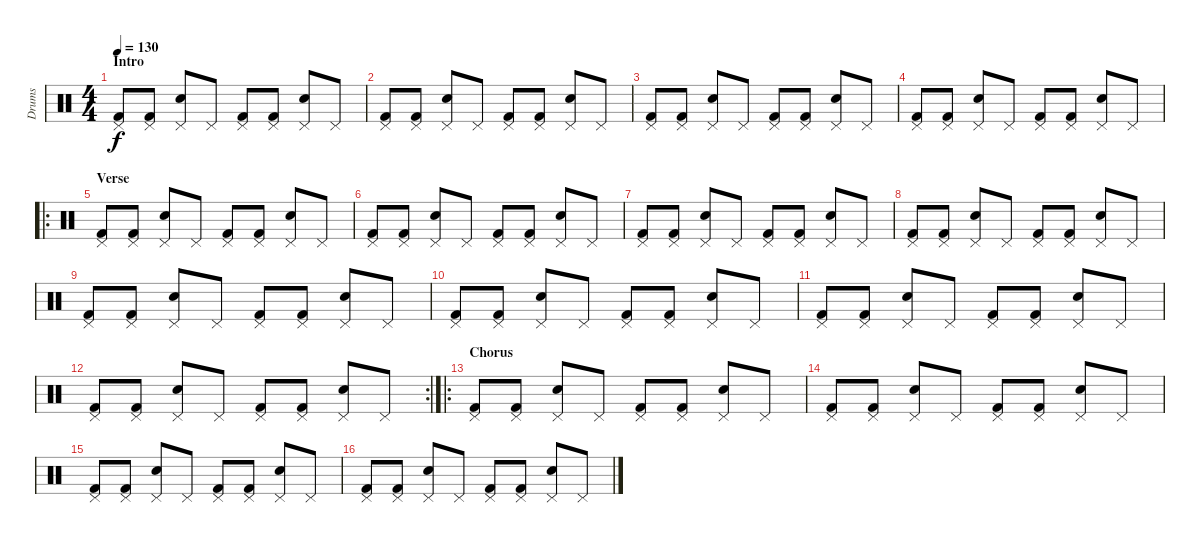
\track ("Drums" "Drums") {instrument percussion}
\staff {score}
\articulation defaults
\ts (4 4)
\section ("" "Intro")
\tempo 130
\clef neutral
\ks c
("Pedal Hi-Hat (hit)" "Kick (hit) 2").8{dy f} ("Pedal Hi-Hat (hit)" "Kick (hit) 2").8 ("Pedal Hi-Hat (hit)" "Snare (hit) 2").8 "Pedal Hi-Hat (hit)".8 ("Pedal Hi-Hat (hit)" "Kick (hit) 2").8 ("Pedal Hi-Hat (hit)" "Kick (hit) 2").8 ("Pedal Hi-Hat (hit)" "Snare (hit) 2").8 "Pedal Hi-Hat (hit)".8 |
("Pedal Hi-Hat (hit)" "Kick (hit) 2").8 ("Pedal Hi-Hat (hit)" "Kick (hit) 2").8 ("Pedal Hi-Hat (hit)" "Snare (hit) 2").8 "Pedal Hi-Hat (hit)".8 ("Pedal Hi-Hat (hit)" "Kick (hit) 2").8 ("Pedal Hi-Hat (hit)" "Kick (hit) 2").8 ("Pedal Hi-Hat (hit)" "Snare (hit) 2").8 "Pedal Hi-Hat (hit)".8 |
("Pedal Hi-Hat (hit)" "Kick (hit) 2").8 ("Pedal Hi-Hat (hit)" "Kick (hit) 2").8 ("Pedal Hi-Hat (hit)" "Snare (hit) 2").8 "Pedal Hi-Hat (hit)".8 ("Pedal Hi-Hat (hit)" "Kick (hit) 2").8 ("Pedal Hi-Hat (hit)" "Kick (hit) 2").8 ("Pedal Hi-Hat (hit)" "Snare (hit) 2").8 "Pedal Hi-Hat (hit)".8 |
("Pedal Hi-Hat (hit)" "Kick (hit) 2").8 ("Pedal Hi-Hat (hit)" "Kick (hit) 2").8 ("Pedal Hi-Hat (hit)" "Snare (hit) 2").8 "Pedal Hi-Hat (hit)".8 ("Pedal Hi-Hat (hit)" "Kick (hit) 2").8 ("Pedal Hi-Hat (hit)" "Kick (hit) 2").8 ("Pedal Hi-Hat (hit)" "Snare (hit) 2").8 "Pedal Hi-Hat (hit)".8 |
\ro
\section ("" "Verse")
("Pedal Hi-Hat (hit)" "Kick (hit) 2").8 ("Pedal Hi-Hat (hit)" "Kick (hit) 2").8 ("Pedal Hi-Hat (hit)" "Snare (hit) 2").8 "Pedal Hi-Hat (hit)".8 ("Pedal Hi-Hat (hit)" "Kick (hit) 2").8 ("Pedal Hi-Hat (hit)" "Kick (hit) 2").8 ("Pedal Hi-Hat (hit)" "Snare (hit) 2").8 "Pedal Hi-Hat (hit)".8 |
("Pedal Hi-Hat (hit)" "Kick (hit) 2").8 ("Pedal Hi-Hat (hit)" "Kick (hit) 2").8 ("Pedal Hi-Hat (hit)" "Snare (hit) 2").8 "Pedal Hi-Hat (hit)".8 ("Pedal Hi-Hat (hit)" "Kick (hit) 2").8 ("Pedal Hi-Hat (hit)" "Kick (hit) 2").8 ("Pedal Hi-Hat (hit)" "Snare (hit) 2").8 "Pedal Hi-Hat (hit)".8 |
("Pedal Hi-Hat (hit)" "Kick (hit) 2").8 ("Pedal Hi-Hat (hit)" "Kick (hit) 2").8 ("Pedal Hi-Hat (hit)" "Snare (hit) 2").8 "Pedal Hi-Hat (hit)".8 ("Pedal Hi-Hat (hit)" "Kick (hit) 2").8 ("Pedal Hi-Hat (hit)" "Kick (hit) 2").8 ("Pedal Hi-Hat (hit)" "Snare (hit) 2").8 "Pedal Hi-Hat (hit)".8 |
("Pedal Hi-Hat (hit)" "Kick (hit) 2").8 ("Pedal Hi-Hat (hit)" "Kick (hit) 2").8 ("Pedal Hi-Hat (hit)" "Snare (hit) 2").8 "Pedal Hi-Hat (hit)".8 ("Pedal Hi-Hat (hit)" "Kick (hit) 2").8 ("Pedal Hi-Hat (hit)" "Kick (hit) 2").8 ("Pedal Hi-Hat (hit)" "Snare (hit) 2").8 "Pedal Hi-Hat (hit)".8 |
("Pedal Hi-Hat (hit)" "Kick (hit) 2").8 ("Pedal Hi-Hat (hit)" "Kick (hit) 2").8 ("Pedal Hi-Hat (hit)" "Snare (hit) 2").8 "Pedal Hi-Hat (hit)".8 ("Pedal Hi-Hat (hit)" "Kick (hit) 2").8 ("Pedal Hi-Hat (hit)" "Kick (hit) 2").8 ("Pedal Hi-Hat (hit)" "Snare (hit) 2").8 "Pedal Hi-Hat (hit)".8 |
("Pedal Hi-Hat (hit)" "Kick (hit) 2").8 ("Pedal Hi-Hat (hit)" "Kick (hit) 2").8 ("Pedal Hi-Hat (hit)" "Snare (hit) 2").8 "Pedal Hi-Hat (hit)".8 ("Pedal Hi-Hat (hit)" "Kick (hit) 2").8 ("Pedal Hi-Hat (hit)" "Kick (hit) 2").8 ("Pedal Hi-Hat (hit)" "Snare (hit) 2").8 "Pedal Hi-Hat (hit)".8 |
("Pedal Hi-Hat (hit)" "Kick (hit) 2").8 ("Pedal Hi-Hat (hit)" "Kick (hit) 2").8 ("Pedal Hi-Hat (hit)" "Snare (hit) 2").8 "Pedal Hi-Hat (hit)".8 ("Pedal Hi-Hat (hit)" "Kick (hit) 2").8 ("Pedal Hi-Hat (hit)" "Kick (hit) 2").8 ("Pedal Hi-Hat (hit)" "Snare (hit) 2").8 "Pedal Hi-Hat (hit)".8 |
\rc 2
("Pedal Hi-Hat (hit)" "Kick (hit) 2").8 ("Pedal Hi-Hat (hit)" "Kick (hit) 2").8 ("Pedal Hi-Hat (hit)" "Snare (hit) 2").8 "Pedal Hi-Hat (hit)".8 ("Pedal Hi-Hat (hit)" "Kick (hit) 2").8 ("Pedal Hi-Hat (hit)" "Kick (hit) 2").8 ("Pedal Hi-Hat (hit)" "Snare (hit) 2").8 "Pedal Hi-Hat (hit)".8 |
\ro
\section ("" "Chorus")
("Pedal Hi-Hat (hit)" "Kick (hit) 2").8 ("Pedal Hi-Hat (hit)" "Kick (hit) 2").8 ("Pedal Hi-Hat (hit)" "Snare (hit) 2").8 "Pedal Hi-Hat (hit)".8 ("Pedal Hi-Hat (hit)" "Kick (hit) 2").8 ("Pedal Hi-Hat (hit)" "Kick (hit) 2").8 ("Pedal Hi-Hat (hit)" "Snare (hit) 2").8 "Pedal Hi-Hat (hit)".8 |
("Pedal Hi-Hat (hit)" "Kick (hit) 2").8 ("Pedal Hi-Hat (hit)" "Kick (hit) 2").8 ("Pedal Hi-Hat (hit)" "Snare (hit) 2").8 "Pedal Hi-Hat (hit)".8 ("Pedal Hi-Hat (hit)" "Kick (hit) 2").8 ("Pedal Hi-Hat (hit)" "Kick (hit) 2").8 ("Pedal Hi-Hat (hit)" "Snare (hit) 2").8 "Pedal Hi-Hat (hit)".8 |
("Pedal Hi-Hat (hit)" "Kick (hit) 2").8 ("Pedal Hi-Hat (hit)" "Kick (hit) 2").8 ("Pedal Hi-Hat (hit)" "Snare (hit) 2").8 "Pedal Hi-Hat (hit)".8 ("Pedal Hi-Hat (hit)" "Kick (hit) 2").8 ("Pedal Hi-Hat (hit)" "Kick (hit) 2").8 ("Pedal Hi-Hat (hit)" "Snare (hit) 2").8 "Pedal Hi-Hat (hit)".8 |
("Pedal Hi-Hat (hit)" "Kick (hit) 2").8 ("Pedal Hi-Hat (hit)" "Kick (hit) 2").8 ("Pedal Hi-Hat (hit)" "Snare (hit) 2").8 "Pedal Hi-Hat (hit)".8 ("Pedal Hi-Hat (hit)" "Kick (hit) 2").8 ("Pedal Hi-Hat (hit)" "Kick (hit) 2").8 ("Pedal Hi-Hat (hit)" "Snare (hit) 2").8 "Pedal Hi-Hat (hit)".8
